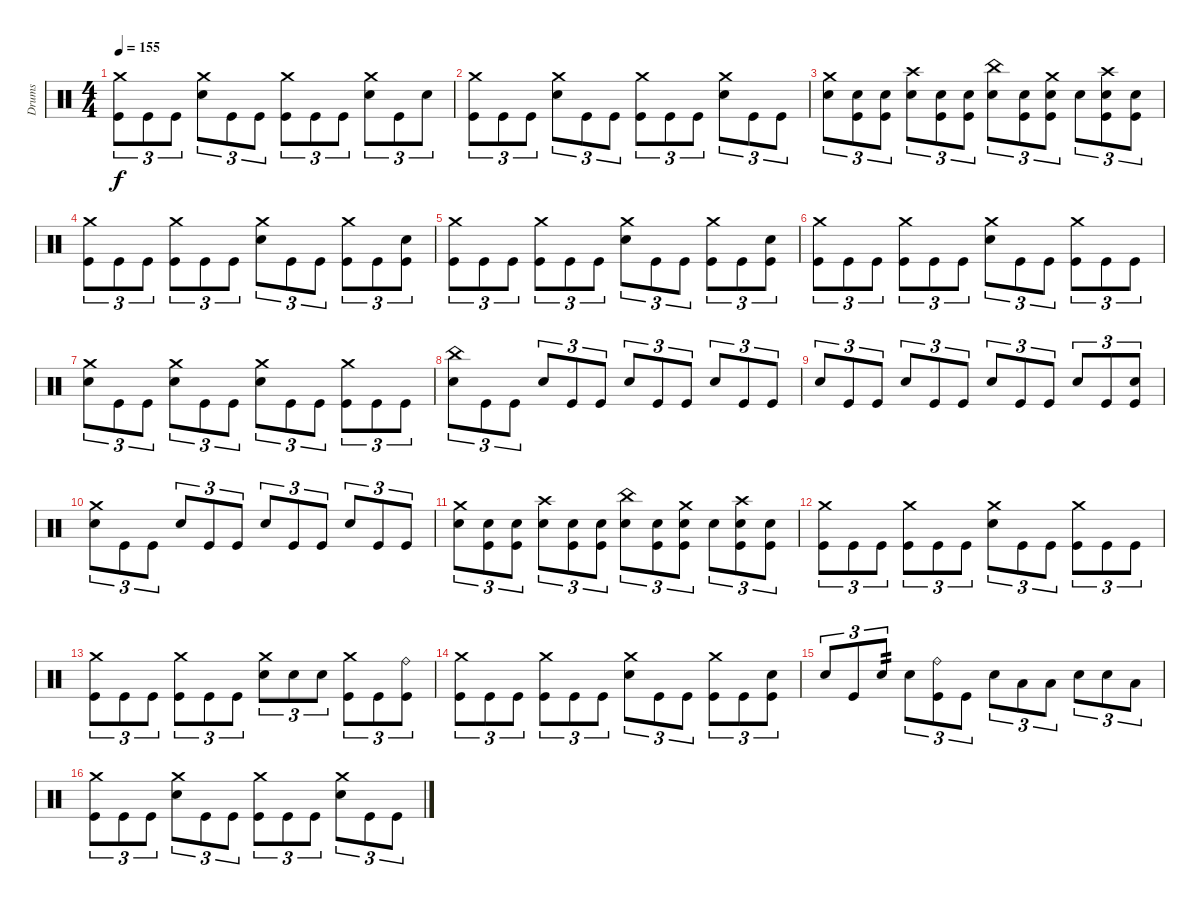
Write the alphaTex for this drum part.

\track ("Drums" "Drums") {instrument percussion}
\staff {score}
\articulation defaults
\ts (4 4)
\tempo 155
\clef neutral
\ks c
("Crash medium (hit)" "Kick (hit)").8{tu (3 2) dy f} "Kick (hit)".8{tu (3 2)} "Kick (hit)".8{tu (3 2)} ("Crash medium (hit)" "Electric Snare (hit)").8{tu (3 2)} "Kick (hit)".8{tu (3 2)} "Kick (hit)".8{tu (3 2)} ("Crash medium (hit)" "Kick (hit)").8{tu (3 2)} "Kick (hit)".8{tu (3 2)} "Kick (hit)".8{tu (3 2)} ("Crash medium (hit)" "Electric Snare (hit)").8{tu (3 2)} "Kick (hit)".8{tu (3 2)} "Electric Snare (hit)".8{tu (3 2)} |
("Crash medium (hit)" "Kick (hit)").8{tu (3 2)} "Kick (hit)".8{tu (3 2)} "Kick (hit)".8{tu (3 2)} ("Crash medium (hit)" "Electric Snare (hit)").8{tu (3 2)} "Kick (hit)".8{tu (3 2)} "Kick (hit)".8{tu (3 2)} ("Crash medium (hit)" "Kick (hit)").8{tu (3 2)} "Kick (hit)".8{tu (3 2)} "Kick (hit)".8{tu (3 2)} ("Crash medium (hit)" "Electric Snare (hit)").8{tu (3 2)} "Kick (hit)".8{tu (3 2)} "Kick (hit)".8{tu (3 2)} |
("Crash medium (hit)" "Electric Snare (hit)").8{tu (3 2)} ("Electric Snare (hit)" "Kick (hit)").8{tu (3 2)} ("Electric Snare (hit)" "Kick (hit)").8{tu (3 2)} ("Crash high (hit)" "Electric Snare (hit)").8{tu (3 2)} ("Electric Snare (hit)" "Kick (hit)").8{tu (3 2)} ("Electric Snare (hit)" "Kick (hit)").8{tu (3 2)} ("China (hit)" "Electric Snare (hit)").8{tu (3 2)} ("Electric Snare (hit)" "Kick (hit)").8{tu (3 2)} ("Crash medium (hit)" "Electric Snare (hit)" "Kick (hit)").8{tu (3 2)} "Electric Snare (hit)".8{tu (3 2)} ("Crash high (hit)" "Electric Snare (hit)" "Kick (hit)").8{tu (3 2)} ("Electric Snare (hit)" "Kick (hit)").8{tu (3 2)} |
("Crash medium (hit)" "Kick (hit)").8{tu (3 2)} "Kick (hit)".8{tu (3 2)} "Kick (hit)".8{tu (3 2)} ("Crash medium (hit)" "Kick (hit)").8{tu (3 2)} "Kick (hit)".8{tu (3 2)} "Kick (hit)".8{tu (3 2)} ("Crash medium (hit)" "Electric Snare (hit)").8{tu (3 2)} "Kick (hit)".8{tu (3 2)} "Kick (hit)".8{tu (3 2)} ("Crash medium (hit)" "Kick (hit)").8{tu (3 2)} "Kick (hit)".8{tu (3 2)} ("Electric Snare (hit)" "Kick (hit)").8{tu (3 2)} |
("Crash medium (hit)" "Kick (hit)").8{tu (3 2)} "Kick (hit)".8{tu (3 2)} "Kick (hit)".8{tu (3 2)} ("Crash medium (hit)" "Kick (hit)").8{tu (3 2)} "Kick (hit)".8{tu (3 2)} "Kick (hit)".8{tu (3 2)} ("Crash medium (hit)" "Electric Snare (hit)").8{tu (3 2)} "Kick (hit)".8{tu (3 2)} "Kick (hit)".8{tu (3 2)} ("Crash medium (hit)" "Kick (hit)").8{tu (3 2)} "Kick (hit)".8{tu (3 2)} ("Electric Snare (hit)" "Kick (hit)").8{tu (3 2)} |
("Crash medium (hit)" "Kick (hit)").8{tu (3 2)} "Kick (hit)".8{tu (3 2)} "Kick (hit)".8{tu (3 2)} ("Crash medium (hit)" "Kick (hit)").8{tu (3 2)} "Kick (hit)".8{tu (3 2)} "Kick (hit)".8{tu (3 2)} ("Crash medium (hit)" "Electric Snare (hit)").8{tu (3 2)} "Kick (hit)".8{tu (3 2)} "Kick (hit)".8{tu (3 2)} ("Crash medium (hit)" "Kick (hit)").8{tu (3 2)} "Kick (hit)".8{tu (3 2)} "Kick (hit)".8{tu (3 2)} |
("Crash medium (hit)" "Electric Snare (hit)").8{tu (3 2)} "Kick (hit)".8{tu (3 2)} "Kick (hit)".8{tu (3 2)} ("Crash medium (hit)" "Electric Snare (hit)").8{tu (3 2)} "Kick (hit)".8{tu (3 2)} "Kick (hit)".8{tu (3 2)} ("Crash medium (hit)" "Electric Snare (hit)").8{tu (3 2)} "Kick (hit)".8{tu (3 2)} "Kick (hit)".8{tu (3 2)} ("Crash medium (hit)" "Kick (hit)").8{tu (3 2)} "Kick (hit)".8{tu (3 2)} "Kick (hit)".8{tu (3 2)} |
("China (hit)" "Electric Snare (hit)").8{tu (3 2)} "Kick (hit)".8{tu (3 2)} "Kick (hit)".8{tu (3 2)} "Electric Snare (hit)".8{tu (3 2)} "Kick (hit)".8{tu (3 2)} "Kick (hit)".8{tu (3 2)} "Electric Snare (hit)".8{tu (3 2)} "Kick (hit)".8{tu (3 2)} "Kick (hit)".8{tu (3 2)} "Electric Snare (hit)".8{tu (3 2)} "Kick (hit)".8{tu (3 2)} "Kick (hit)".8{tu (3 2)} |
"Electric Snare (hit)".8{tu (3 2)} "Kick (hit)".8{tu (3 2)} "Kick (hit)".8{tu (3 2)} "Electric Snare (hit)".8{tu (3 2)} "Kick (hit)".8{tu (3 2)} "Kick (hit)".8{tu (3 2)} "Electric Snare (hit)".8{tu (3 2)} "Kick (hit)".8{tu (3 2)} "Kick (hit)".8{tu (3 2)} "Electric Snare (hit)".8{tu (3 2)} "Kick (hit)".8{tu (3 2)} ("Electric Snare (hit)" "Kick (hit)").8{tu (3 2)} |
("Crash medium (hit)" "Electric Snare (hit)").8{tu (3 2)} "Kick (hit)".8{tu (3 2)} "Kick (hit)".8{tu (3 2)} "Electric Snare (hit)".8{tu (3 2)} "Kick (hit)".8{tu (3 2)} "Kick (hit)".8{tu (3 2)} "Electric Snare (hit)".8{tu (3 2)} "Kick (hit)".8{tu (3 2)} "Kick (hit)".8{tu (3 2)} "Electric Snare (hit)".8{tu (3 2)} "Kick (hit)".8{tu (3 2)} "Kick (hit)".8{tu (3 2)} |
("Crash medium (hit)" "Electric Snare (hit)").8{tu (3 2)} ("Electric Snare (hit)" "Kick (hit)").8{tu (3 2)} ("Electric Snare (hit)" "Kick (hit)").8{tu (3 2)} ("Crash high (hit)" "Electric Snare (hit)").8{tu (3 2)} ("Electric Snare (hit)" "Kick (hit)").8{tu (3 2)} ("Electric Snare (hit)" "Kick (hit)").8{tu (3 2)} ("China (hit)" "Electric Snare (hit)").8{tu (3 2)} ("Electric Snare (hit)" "Kick (hit)").8{tu (3 2)} ("Crash medium (hit)" "Electric Snare (hit)" "Kick (hit)").8{tu (3 2)} "Electric Snare (hit)".8{tu (3 2)} ("Crash high (hit)" "Electric Snare (hit)" "Kick (hit)").8{tu (3 2)} ("Electric Snare (hit)" "Kick (hit)").8{tu (3 2)} |
("Crash medium (hit)" "Kick (hit)").8{tu (3 2)} "Kick (hit)".8{tu (3 2)} "Kick (hit)".8{tu (3 2)} ("Crash medium (hit)" "Kick (hit)").8{tu (3 2)} "Kick (hit)".8{tu (3 2)} "Kick (hit)".8{tu (3 2)} ("Crash medium (hit)" "Electric Snare (hit)").8{tu (3 2)} "Kick (hit)".8{tu (3 2)} "Kick (hit)".8{tu (3 2)} ("Crash medium (hit)" "Kick (hit)").8{tu (3 2)} "Kick (hit)".8{tu (3 2)} "Kick (hit)".8{tu (3 2)} |
("Crash medium (hit)" "Kick (hit)").8{tu (3 2)} "Kick (hit)".8{tu (3 2)} "Kick (hit)".8{tu (3 2)} ("Crash medium (hit)" "Kick (hit)").8{tu (3 2)} "Kick (hit)".8{tu (3 2)} "Kick (hit)".8{tu (3 2)} ("Crash medium (hit)" "Electric Snare (hit)").8{tu (3 2)} "Electric Snare (hit)".8{tu (3 2)} "Electric Snare (hit)".8{tu (3 2)} ("Crash medium (hit)" "Kick (hit)").8{tu (3 2)} "Kick (hit)".8{tu (3 2)} ("Ride (bell)" "Kick (hit)").8{tu (3 2)} |
("Crash medium (hit)" "Kick (hit)").8{tu (3 2)} "Kick (hit)".8{tu (3 2)} "Kick (hit)".8{tu (3 2)} ("Crash medium (hit)" "Kick (hit)").8{tu (3 2)} "Kick (hit)".8{tu (3 2)} "Kick (hit)".8{tu (3 2)} ("Crash medium (hit)" "Electric Snare (hit)").8{tu (3 2)} "Kick (hit)".8{tu (3 2)} "Kick (hit)".8{tu (3 2)} ("Crash medium (hit)" "Kick (hit)").8{tu (3 2)} "Kick (hit)".8{tu (3 2)} ("Electric Snare (hit)" "Kick (hit)").8{tu (3 2)} |
"Electric Snare (hit)".8{tu (3 2)} "Kick (hit)".8{tu (3 2)} "Electric Snare (hit)".8{tu (3 2) tp 2} "Electric Snare (hit)".8{tu (3 2)} ("Ride (bell)" "Kick (hit)").8{tu (3 2)} "Kick (hit)".8{tu (3 2)} "Electric Snare (hit)".8{tu (3 2)} "Low Tom (hit)".8{tu (3 2)} "Low Tom (hit)".8{tu (3 2)} "Electric Snare (hit)".8{tu (3 2)} "Electric Snare (hit)".8{tu (3 2)} "Low Tom (hit)".8{tu (3 2)} |
("Crash medium (hit)" "Kick (hit)").8{tu (3 2)} "Kick (hit)".8{tu (3 2)} "Kick (hit)".8{tu (3 2)} ("Crash medium (hit)" "Electric Snare (hit)").8{tu (3 2)} "Kick (hit)".8{tu (3 2)} "Kick (hit)".8{tu (3 2)} ("Crash medium (hit)" "Kick (hit)").8{tu (3 2)} "Kick (hit)".8{tu (3 2)} "Kick (hit)".8{tu (3 2)} ("Crash medium (hit)" "Electric Snare (hit)").8{tu (3 2)} "Kick (hit)".8{tu (3 2)} "Kick (hit)".8{tu (3 2)}
